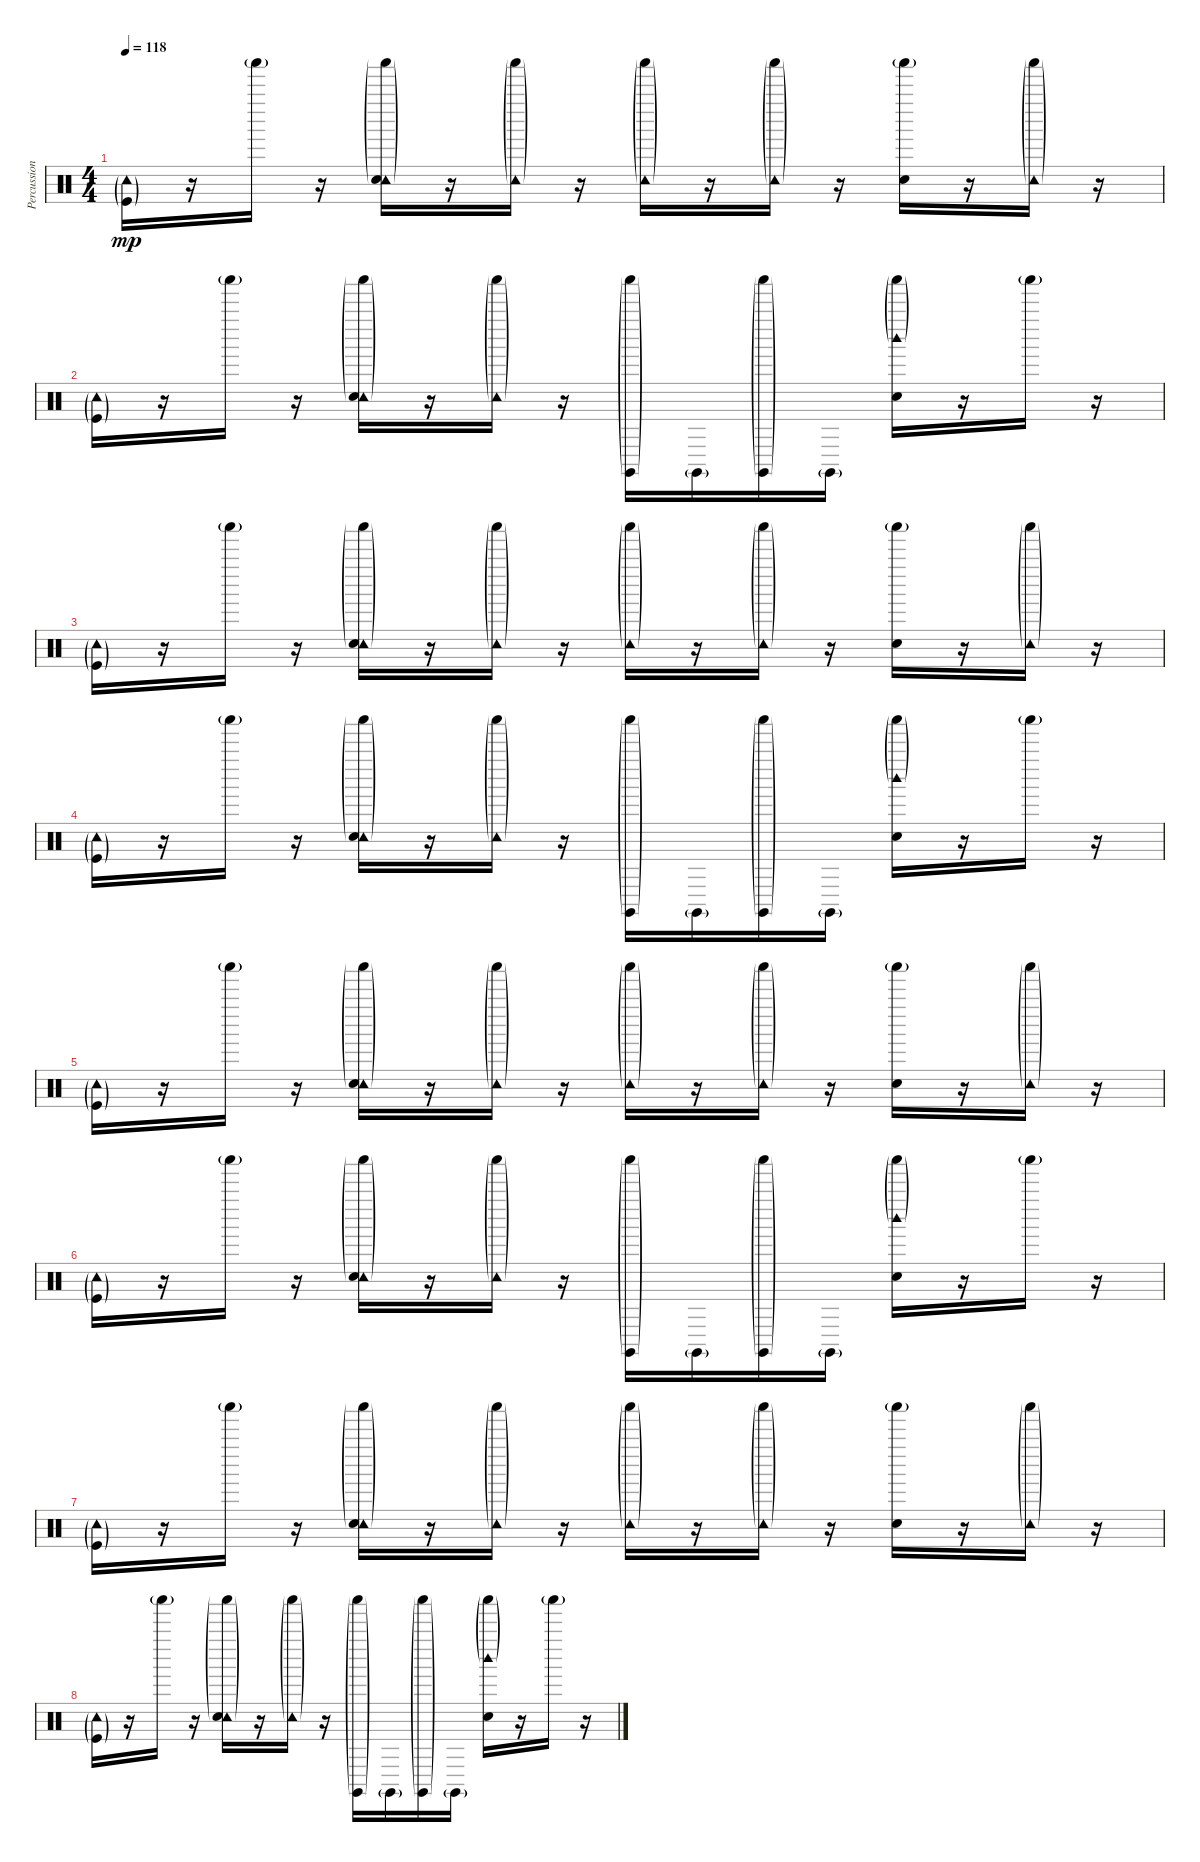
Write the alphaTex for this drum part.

\track ("Percussion" "Percussion") {instrument percussion}
\staff {score}
\articulation defaults
\ts (4 4)
\tempo 118
\clef neutral
\ks c
("Tambourine (hit)"{g} "Kick (hit)"{g}).16{dy mp} r.16 "Shaker (hit)"{g}.16 r.16 ("Shaker (hit)"{g} "Tambourine (hit)"{g} "Hand Clap (hit)").16 r.16 ("Shaker (hit)"{g} "Tambourine (hit)"{g}).16 r.16 ("Shaker (hit)"{g} "Tambourine (hit)"{g}).16 r.16 ("Shaker (hit)"{g} "Tambourine (hit)"{g}).16 r.16 ("Shaker (hit)"{g} "Hand Clap (hit)").16 r.16 ("Shaker (hit)"{g} "Tambourine (hit)"{g}).16 r.16 |
("Tambourine (hit)"{g} "Kick (hit)"{g}).16 r.16 "Shaker (hit)"{g}.16 r.16 ("Shaker (hit)"{g} "Tambourine (hit)"{g} "Hand Clap (hit)").16 r.16 ("Shaker (hit)"{g} "Tambourine (hit)"{g}).16 r.16 ("Shaker (hit)"{g} "Claves (hit)"{g}).16 "Claves (hit)"{g}.16 ("Shaker (hit)"{g} "Claves (hit)"{g}).16 "Claves (hit)"{g}.16 ("Shaker (hit)"{g} "Woodblock high (hit)"{g} "Hand Clap (hit)").16 r.16 "Shaker (hit)"{g}.16 r.16 |
("Tambourine (hit)"{g} "Kick (hit)"{g}).16 r.16 "Shaker (hit)"{g}.16 r.16 ("Shaker (hit)"{g} "Tambourine (hit)"{g} "Hand Clap (hit)").16 r.16 ("Shaker (hit)"{g} "Tambourine (hit)"{g}).16 r.16 ("Shaker (hit)"{g} "Tambourine (hit)"{g}).16 r.16 ("Shaker (hit)"{g} "Tambourine (hit)"{g}).16 r.16 ("Shaker (hit)"{g} "Hand Clap (hit)").16 r.16 ("Shaker (hit)"{g} "Tambourine (hit)"{g}).16 r.16 |
("Tambourine (hit)"{g} "Kick (hit)"{g}).16 r.16 "Shaker (hit)"{g}.16 r.16 ("Shaker (hit)"{g} "Tambourine (hit)"{g} "Hand Clap (hit)").16 r.16 ("Shaker (hit)"{g} "Tambourine (hit)"{g}).16 r.16 ("Shaker (hit)"{g} "Claves (hit)"{g}).16 "Claves (hit)"{g}.16 ("Shaker (hit)"{g} "Claves (hit)"{g}).16 "Claves (hit)"{g}.16 ("Shaker (hit)"{g} "Woodblock high (hit)"{g} "Hand Clap (hit)").16 r.16 "Shaker (hit)"{g}.16 r.16 |
("Tambourine (hit)"{g} "Kick (hit)"{g}).16 r.16 "Shaker (hit)"{g}.16 r.16 ("Shaker (hit)"{g} "Tambourine (hit)"{g} "Hand Clap (hit)").16 r.16 ("Shaker (hit)"{g} "Tambourine (hit)"{g}).16 r.16 ("Shaker (hit)"{g} "Tambourine (hit)"{g}).16 r.16 ("Shaker (hit)"{g} "Tambourine (hit)"{g}).16 r.16 ("Shaker (hit)"{g} "Hand Clap (hit)").16 r.16 ("Shaker (hit)"{g} "Tambourine (hit)"{g}).16 r.16 |
("Tambourine (hit)"{g} "Kick (hit)"{g}).16 r.16 "Shaker (hit)"{g}.16 r.16 ("Shaker (hit)"{g} "Tambourine (hit)"{g} "Hand Clap (hit)").16 r.16 ("Shaker (hit)"{g} "Tambourine (hit)"{g}).16 r.16 ("Shaker (hit)"{g} "Claves (hit)"{g}).16 "Claves (hit)"{g}.16 ("Shaker (hit)"{g} "Claves (hit)"{g}).16 "Claves (hit)"{g}.16 ("Shaker (hit)"{g} "Woodblock high (hit)"{g} "Hand Clap (hit)").16 r.16 "Shaker (hit)"{g}.16 r.16 |
("Tambourine (hit)"{g} "Kick (hit)"{g}).16 r.16 "Shaker (hit)"{g}.16 r.16 ("Shaker (hit)"{g} "Tambourine (hit)"{g} "Hand Clap (hit)").16 r.16 ("Shaker (hit)"{g} "Tambourine (hit)"{g}).16 r.16 ("Shaker (hit)"{g} "Tambourine (hit)"{g}).16 r.16 ("Shaker (hit)"{g} "Tambourine (hit)"{g}).16 r.16 ("Shaker (hit)"{g} "Hand Clap (hit)").16 r.16 ("Shaker (hit)"{g} "Tambourine (hit)"{g}).16 r.16 |
("Tambourine (hit)"{g} "Kick (hit)"{g}).16 r.16 "Shaker (hit)"{g}.16 r.16 ("Shaker (hit)"{g} "Tambourine (hit)"{g} "Hand Clap (hit)").16 r.16 ("Shaker (hit)"{g} "Tambourine (hit)"{g}).16 r.16 ("Shaker (hit)"{g} "Claves (hit)"{g}).16 "Claves (hit)"{g}.16 ("Shaker (hit)"{g} "Claves (hit)"{g}).16 "Claves (hit)"{g}.16 ("Shaker (hit)"{g} "Woodblock high (hit)"{g} "Hand Clap (hit)").16 r.16 "Shaker (hit)"{g}.16 r.16
